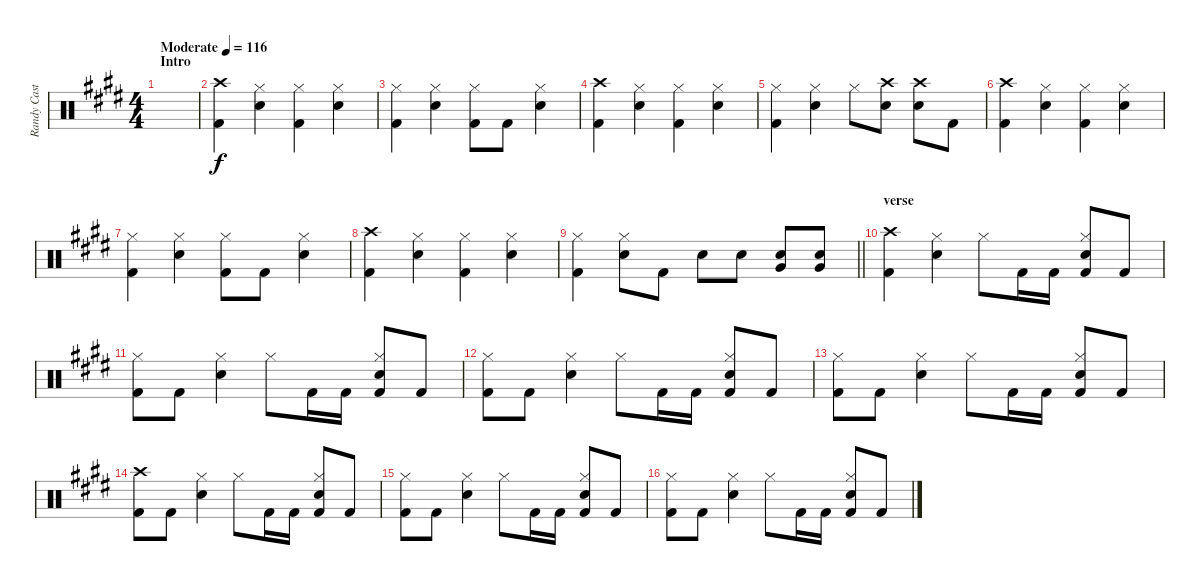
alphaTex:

\track ("Randy Castillo" "Randy Cast") {instrument percussion}
\staff {score}
\articulation defaults
\ts (4 4)
\section ("" "Intro")
\tempo (116 "Moderate")
\clef neutral
\ks e
|
("Kick (hit) 2" "Crash high (hit)").4 ("Hi-Hat (closed)" "Snare (hit) 2").4 ("Hi-Hat (closed)" "Kick (hit) 2").4 ("Hi-Hat (closed)" "Snare (hit) 2").4 |
("Hi-Hat (closed)" "Kick (hit) 2").4 ("Hi-Hat (closed)" "Snare (hit) 2").4 ("Hi-Hat (closed)" "Kick (hit) 2").8 "Kick (hit) 2".8 ("Hi-Hat (closed)" "Snare (hit) 2").4 |
("Kick (hit) 2" "Crash high (hit)").4 ("Hi-Hat (closed)" "Snare (hit) 2").4 ("Hi-Hat (closed)" "Kick (hit) 2").4 ("Hi-Hat (closed)" "Snare (hit) 2").4 |
("Hi-Hat (closed)" "Kick (hit) 2").4 ("Hi-Hat (closed)" "Snare (hit) 2").4 "Hi-Hat (closed)".8 ("Snare (hit) 2" "Crash high (hit)").8 ("Snare (hit) 2" "Crash high (hit)").8 "Kick (hit) 2".8 |
("Kick (hit) 2" "Crash high (hit)").4 ("Hi-Hat (closed)" "Snare (hit) 2").4 ("Hi-Hat (closed)" "Kick (hit) 2").4 ("Hi-Hat (closed)" "Snare (hit) 2").4 |
("Hi-Hat (closed)" "Kick (hit) 2").4 ("Hi-Hat (closed)" "Snare (hit) 2").4 ("Hi-Hat (closed)" "Kick (hit) 2").8 "Kick (hit) 2".8 ("Hi-Hat (closed)" "Snare (hit) 2").4 |
("Kick (hit) 2" "Crash high (hit)").4 ("Hi-Hat (closed)" "Snare (hit) 2").4 ("Hi-Hat (closed)" "Kick (hit) 2").4 ("Hi-Hat (closed)" "Snare (hit) 2").4 |
\barLineRight lightlight
("Hi-Hat (closed)" "Kick (hit) 2").4 ("Hi-Hat (closed)" "Snare (hit) 2").8 "Kick (hit) 2".8 "Snare (hit) 2".8 "Snare (hit) 2".8 ("Snare (hit) 2" "Very Low Tom (hit)").8 ("Snare (hit) 2" "Very Low Tom (hit)").8 |
\section ("" "verse")
("Kick (hit) 2" "Crash high (hit)").4 ("Hi-Hat (closed)" "Snare (hit) 2").4 "Hi-Hat (closed)".8 "Kick (hit) 2".16 "Kick (hit) 2".16 ("Hi-Hat (closed)" "Snare (hit) 2" "Kick (hit) 2").8 "Kick (hit) 2".8 |
("Hi-Hat (closed)" "Kick (hit) 2").8 "Kick (hit) 2".8 ("Hi-Hat (closed)" "Snare (hit) 2").4 "Hi-Hat (closed)".8 "Kick (hit) 2".16 "Kick (hit) 2".16 ("Hi-Hat (closed)" "Snare (hit) 2" "Kick (hit) 2").8 "Kick (hit) 2".8 |
("Hi-Hat (closed)" "Kick (hit) 2").8 "Kick (hit) 2".8 ("Hi-Hat (closed)" "Snare (hit) 2").4 "Hi-Hat (closed)".8 "Kick (hit) 2".16 "Kick (hit) 2".16 ("Hi-Hat (closed)" "Snare (hit) 2" "Kick (hit) 2").8 "Kick (hit) 2".8 |
("Hi-Hat (closed)" "Kick (hit) 2").8 "Kick (hit) 2".8 ("Hi-Hat (closed)" "Snare (hit) 2").4 "Hi-Hat (closed)".8 "Kick (hit) 2".16 "Kick (hit) 2".16 ("Hi-Hat (closed)" "Snare (hit) 2" "Kick (hit) 2").8 "Kick (hit) 2".8 |
("Kick (hit) 2" "Crash high (hit)").8 "Kick (hit) 2".8 ("Hi-Hat (closed)" "Snare (hit) 2").4 "Hi-Hat (closed)".8 "Kick (hit) 2".16 "Kick (hit) 2".16 ("Hi-Hat (closed)" "Snare (hit) 2" "Kick (hit) 2").8 "Kick (hit) 2".8 |
("Hi-Hat (closed)" "Kick (hit) 2").8 "Kick (hit) 2".8 ("Hi-Hat (closed)" "Snare (hit) 2").4 "Hi-Hat (closed)".8 "Kick (hit) 2".16 "Kick (hit) 2".16 ("Hi-Hat (closed)" "Snare (hit) 2" "Kick (hit) 2").8 "Kick (hit) 2".8 |
("Hi-Hat (closed)" "Kick (hit) 2").8 "Kick (hit) 2".8 ("Hi-Hat (closed)" "Snare (hit) 2").4 "Hi-Hat (closed)".8 "Kick (hit) 2".16 "Kick (hit) 2".16 ("Hi-Hat (closed)" "Snare (hit) 2" "Kick (hit) 2").8 "Kick (hit) 2".8
